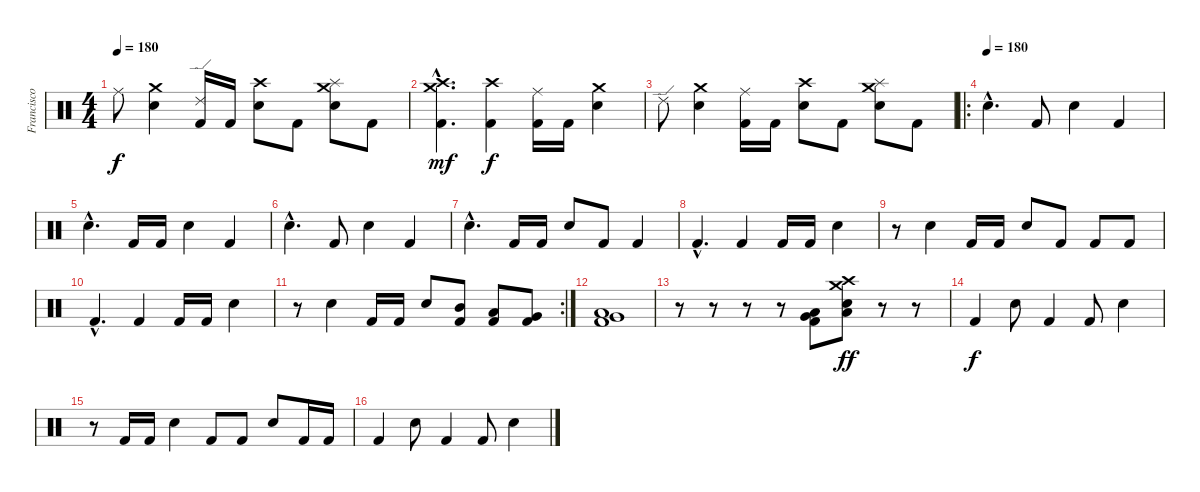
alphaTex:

\track ("Francisco Izquierdo (Percusión)" "Francisco ") {instrument percussion}
\staff {score}
\articulation defaults
\ts (4 4)
\tempo 180
\clef neutral
\ks c "Ride (middle)".8{dy f}
("Crash medium (hit)" "Electric Snare (hit)").4 ("Ride (edge) 2" "Kick (hit) 2").16 "Kick (hit) 2".16 ("Crash high (hit)" "Electric Snare (hit)").8 "Kick (hit) 2".8 ("Crash medium (hit)" "Splash (hit)" "Electric Snare (hit)").8 "Kick (hit) 2".8 |
("Crash medium (hit)"{hac} "Crash high (hit)"{hac} "Kick (hit) 2"{hac}).4{d dy mf} ("Crash high (hit)" "Kick (hit) 2").4{dy f} ("Ride (middle)" "Kick (hit) 2").16 "Kick (hit) 2".16 ("Crash medium (hit)" "Electric Snare (hit)").4 |
"Ride (edge) 2".8 ("Crash medium (hit)" "Electric Snare (hit)").4 ("Ride (middle)" "Kick (hit) 2").16 "Kick (hit) 2".16 ("Crash high (hit)" "Electric Snare (hit)").8 "Kick (hit) 2".8 ("Crash medium (hit)" "Splash (hit)" "Electric Snare (hit)").8 "Kick (hit) 2".8 |
\ro
\tempo (180)
"Electric Snare (hit)"{hac}.4{d} "Kick (hit) 2".8 "Electric Snare (hit)".4 "Kick (hit) 2".4 |
"Electric Snare (hit)"{hac}.4{d} "Kick (hit) 2".16 "Kick (hit) 2".16 "Electric Snare (hit)".4 "Kick (hit) 2".4 |
"Electric Snare (hit)"{hac}.4{d} "Kick (hit) 2".8 "Electric Snare (hit)".4 "Kick (hit) 2".4 |
"Electric Snare (hit)"{hac}.4{d} "Kick (hit) 2".16 "Kick (hit) 2".16 "Electric Snare (hit)".8 "Kick (hit) 2".8 "Kick (hit) 2".4 |
"Kick (hit) 2"{hac}.4{d} "Kick (hit) 2".4 "Kick (hit) 2".16 "Kick (hit) 2".16 "Electric Snare (hit)".4 |
r.8 "Electric Snare (hit)".4 "Kick (hit) 2".16 "Kick (hit) 2".16 "Electric Snare (hit)".8 "Kick (hit) 2".8 "Kick (hit) 2".8 "Kick (hit) 2".8 |
"Kick (hit) 2"{hac}.4{d} "Kick (hit) 2".4 "Kick (hit) 2".16 "Kick (hit) 2".16 "Electric Snare (hit)".4 |
\rc 2
r.8 "Electric Snare (hit)".4 "Kick (hit) 2".16 "Kick (hit) 2".16 "Electric Snare (hit)".8 ("Mid Tom (hit)" "Kick (hit) 2").8 ("Low Tom (hit)" "Kick (hit) 2").8 ("Very Low Tom (hit)" "Kick (hit) 2").8 |
("Low Tom (hit)" "Very Low Tom (hit)" "Kick (hit) 2").1 |
r.8 r.8 r.8 r.8 ("Very Low Tom (hit)" "Low Floor Tom (hit)" "Kick (hit) 2").8 ("Crash high (hit)" "Crash medium (hit)" "Low Floor Tom (hit)" "Electric Snare (hit)").8{dy ff} r.8 r.8 |
"Kick (hit) 2".4{dy f} "Electric Snare (hit)".8 "Kick (hit) 2".4 "Kick (hit) 2".8 "Electric Snare (hit)".4 |
r.8 "Kick (hit) 2".16 "Kick (hit) 2".16 "Electric Snare (hit)".4 "Kick (hit) 2".8 "Kick (hit) 2".8 "Electric Snare (hit)".8 "Kick (hit) 2".16 "Kick (hit) 2".16 |
"Kick (hit) 2".4 "Electric Snare (hit)".8 "Kick (hit) 2".4 "Kick (hit) 2".8 "Electric Snare (hit)".4
